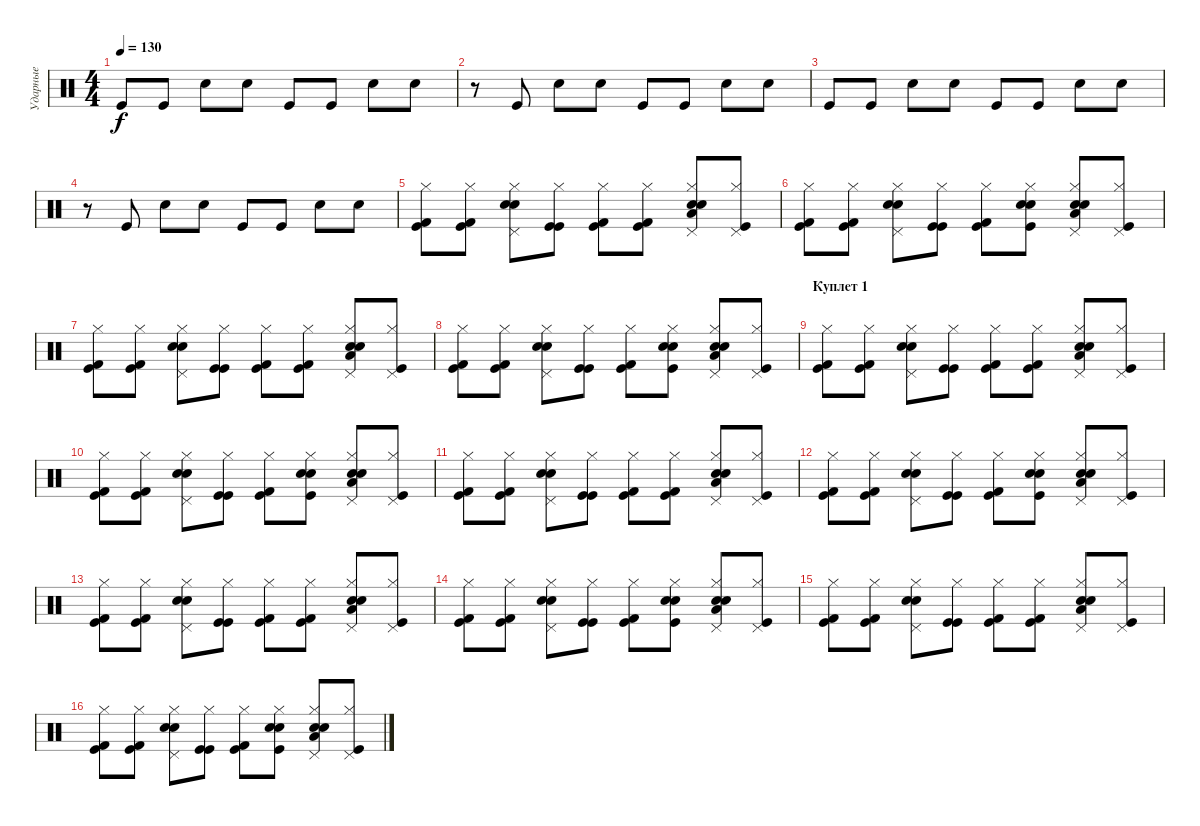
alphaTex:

\track ("Ударные" "Ударные") {instrument percussion}
\staff {score}
\articulation defaults
\ts (4 4)
\tempo 130
\clef neutral
\ks c "Kick (hit)".8{dy f} "Kick (hit)".8 "Snare (hit) 2".8 "Snare (hit) 2".8 "Kick (hit)".8 "Kick (hit)".8 "Snare (hit) 2".8 "Snare (hit) 2".8
|
r.8 "Kick (hit)".8 "Snare (hit) 2".8 "Snare (hit) 2".8 "Kick (hit)".8 "Kick (hit)".8 "Snare (hit) 2".8 "Snare (hit) 2".8 |
"Kick (hit)".8 "Kick (hit)".8 "Snare (hit) 2".8 "Snare (hit) 2".8 "Kick (hit)".8 "Kick (hit)".8 "Snare (hit) 2".8 "Snare (hit) 2".8 |
r.8 "Kick (hit)".8 "Snare (hit) 2".8 "Snare (hit) 2".8 "Kick (hit)".8 "Kick (hit)".8 "Snare (hit) 2".8 "Snare (hit) 2".8 |
("Kick (hit)" "Kick (hit) 2" "Hi-Hat (closed)").8 ("Kick (hit)" "Kick (hit) 2" "Hi-Hat (closed)").8 ("Electric Snare (hit)" "Pedal Hi-Hat (hit)" "Hi-Hat (closed)" "Snare (hit) 2").8 ("Kick (hit)" "Kick (hit)" "Hi-Hat (closed)").8 ("Kick (hit)" "Kick (hit) 2" "Hi-Hat (closed)").8 ("Kick (hit)" "Kick (hit) 2" "Hi-Hat (closed)").8 ("Low Tom (hit)" "Electric Snare (hit)" "Pedal Hi-Hat (hit)" "Hi-Hat (closed)" "Snare (hit) 2").8 ("Pedal Hi-Hat (hit)" "Kick (hit)" "Hi-Hat (closed)").8 |
("Kick (hit)" "Kick (hit) 2" "Hi-Hat (closed)").8 ("Kick (hit)" "Kick (hit) 2" "Hi-Hat (closed)").8 ("Snare (hit) 2" "Electric Snare (hit)" "Pedal Hi-Hat (hit)" "Hi-Hat (closed)").8 ("Kick (hit)" "Kick (hit)" "Hi-Hat (closed)").8 ("Kick (hit)" "Kick (hit) 2" "Hi-Hat (closed)").8 ("Kick (hit)" "Electric Snare (hit)" "Hi-Hat (closed)" "Snare (hit) 2").8 ("Low Tom (hit)" "Electric Snare (hit)" "Pedal Hi-Hat (hit)" "Hi-Hat (closed)" "Snare (hit) 2").8 ("Pedal Hi-Hat (hit)" "Kick (hit)" "Hi-Hat (closed)").8 |
("Kick (hit)" "Kick (hit) 2" "Hi-Hat (closed)").8 ("Kick (hit)" "Kick (hit) 2" "Hi-Hat (closed)").8 ("Electric Snare (hit)" "Pedal Hi-Hat (hit)" "Hi-Hat (closed)" "Snare (hit) 2").8 ("Kick (hit)" "Kick (hit)" "Hi-Hat (closed)").8 ("Kick (hit)" "Kick (hit) 2" "Hi-Hat (closed)").8 ("Kick (hit)" "Kick (hit) 2" "Hi-Hat (closed)").8 ("Low Tom (hit)" "Electric Snare (hit)" "Pedal Hi-Hat (hit)" "Hi-Hat (closed)" "Snare (hit) 2").8 ("Pedal Hi-Hat (hit)" "Kick (hit)" "Hi-Hat (closed)").8 |
("Kick (hit)" "Kick (hit) 2" "Hi-Hat (closed)").8 ("Kick (hit)" "Kick (hit) 2" "Hi-Hat (closed)").8 ("Snare (hit) 2" "Electric Snare (hit)" "Pedal Hi-Hat (hit)" "Hi-Hat (closed)").8 ("Kick (hit)" "Kick (hit)" "Hi-Hat (closed)").8 ("Kick (hit)" "Kick (hit) 2" "Hi-Hat (closed)").8 ("Kick (hit)" "Electric Snare (hit)" "Hi-Hat (closed)" "Snare (hit) 2").8 ("Low Tom (hit)" "Electric Snare (hit)" "Pedal Hi-Hat (hit)" "Hi-Hat (closed)" "Snare (hit) 2").8 ("Pedal Hi-Hat (hit)" "Kick (hit)" "Hi-Hat (closed)").8 |
\section ("" "Куплет 1")
("Kick (hit)" "Kick (hit) 2" "Hi-Hat (closed)").8 ("Kick (hit)" "Kick (hit) 2" "Hi-Hat (closed)").8 ("Electric Snare (hit)" "Pedal Hi-Hat (hit)" "Hi-Hat (closed)" "Snare (hit) 2").8 ("Kick (hit)" "Kick (hit)" "Hi-Hat (closed)").8 ("Kick (hit)" "Kick (hit) 2" "Hi-Hat (closed)").8 ("Kick (hit)" "Kick (hit) 2" "Hi-Hat (closed)").8 ("Low Tom (hit)" "Electric Snare (hit)" "Pedal Hi-Hat (hit)" "Hi-Hat (closed)" "Snare (hit) 2").8 ("Pedal Hi-Hat (hit)" "Kick (hit)" "Hi-Hat (closed)").8 |
("Kick (hit)" "Kick (hit) 2" "Hi-Hat (closed)").8 ("Kick (hit)" "Kick (hit) 2" "Hi-Hat (closed)").8 ("Snare (hit) 2" "Electric Snare (hit)" "Pedal Hi-Hat (hit)" "Hi-Hat (closed)").8 ("Kick (hit)" "Kick (hit)" "Hi-Hat (closed)").8 ("Kick (hit)" "Kick (hit) 2" "Hi-Hat (closed)").8 ("Kick (hit)" "Electric Snare (hit)" "Hi-Hat (closed)" "Snare (hit) 2").8 ("Low Tom (hit)" "Electric Snare (hit)" "Pedal Hi-Hat (hit)" "Hi-Hat (closed)" "Snare (hit) 2").8 ("Pedal Hi-Hat (hit)" "Kick (hit)" "Hi-Hat (closed)").8 |
("Kick (hit)" "Kick (hit) 2" "Hi-Hat (closed)").8 ("Kick (hit)" "Kick (hit) 2" "Hi-Hat (closed)").8 ("Electric Snare (hit)" "Pedal Hi-Hat (hit)" "Hi-Hat (closed)" "Snare (hit) 2").8 ("Kick (hit)" "Kick (hit)" "Hi-Hat (closed)").8 ("Kick (hit)" "Kick (hit) 2" "Hi-Hat (closed)").8 ("Kick (hit)" "Kick (hit) 2" "Hi-Hat (closed)").8 ("Low Tom (hit)" "Electric Snare (hit)" "Pedal Hi-Hat (hit)" "Hi-Hat (closed)" "Snare (hit) 2").8 ("Pedal Hi-Hat (hit)" "Kick (hit)" "Hi-Hat (closed)").8 |
("Kick (hit)" "Kick (hit) 2" "Hi-Hat (closed)").8 ("Kick (hit)" "Kick (hit) 2" "Hi-Hat (closed)").8 ("Snare (hit) 2" "Electric Snare (hit)" "Pedal Hi-Hat (hit)" "Hi-Hat (closed)").8 ("Kick (hit)" "Kick (hit)" "Hi-Hat (closed)").8 ("Kick (hit)" "Kick (hit) 2" "Hi-Hat (closed)").8 ("Kick (hit)" "Electric Snare (hit)" "Hi-Hat (closed)" "Snare (hit) 2").8 ("Low Tom (hit)" "Electric Snare (hit)" "Pedal Hi-Hat (hit)" "Hi-Hat (closed)" "Snare (hit) 2").8 ("Pedal Hi-Hat (hit)" "Kick (hit)" "Hi-Hat (closed)").8 |
("Kick (hit)" "Kick (hit) 2" "Hi-Hat (closed)").8 ("Kick (hit)" "Kick (hit) 2" "Hi-Hat (closed)").8 ("Electric Snare (hit)" "Pedal Hi-Hat (hit)" "Hi-Hat (closed)" "Snare (hit) 2").8 ("Kick (hit)" "Kick (hit)" "Hi-Hat (closed)").8 ("Kick (hit)" "Kick (hit) 2" "Hi-Hat (closed)").8 ("Kick (hit)" "Kick (hit) 2" "Hi-Hat (closed)").8 ("Low Tom (hit)" "Electric Snare (hit)" "Pedal Hi-Hat (hit)" "Hi-Hat (closed)" "Snare (hit) 2").8 ("Pedal Hi-Hat (hit)" "Kick (hit)" "Hi-Hat (closed)").8 |
("Kick (hit)" "Kick (hit) 2" "Hi-Hat (closed)").8 ("Kick (hit)" "Kick (hit) 2" "Hi-Hat (closed)").8 ("Snare (hit) 2" "Electric Snare (hit)" "Pedal Hi-Hat (hit)" "Hi-Hat (closed)").8 ("Kick (hit)" "Kick (hit)" "Hi-Hat (closed)").8 ("Kick (hit)" "Kick (hit) 2" "Hi-Hat (closed)").8 ("Kick (hit)" "Electric Snare (hit)" "Hi-Hat (closed)" "Snare (hit) 2").8 ("Low Tom (hit)" "Electric Snare (hit)" "Pedal Hi-Hat (hit)" "Hi-Hat (closed)" "Snare (hit) 2").8 ("Pedal Hi-Hat (hit)" "Kick (hit)" "Hi-Hat (closed)").8 |
("Kick (hit)" "Kick (hit) 2" "Hi-Hat (closed)").8 ("Kick (hit)" "Kick (hit) 2" "Hi-Hat (closed)").8 ("Electric Snare (hit)" "Pedal Hi-Hat (hit)" "Hi-Hat (closed)" "Snare (hit) 2").8 ("Kick (hit)" "Kick (hit)" "Hi-Hat (closed)").8 ("Kick (hit)" "Kick (hit) 2" "Hi-Hat (closed)").8 ("Kick (hit)" "Kick (hit) 2" "Hi-Hat (closed)").8 ("Low Tom (hit)" "Electric Snare (hit)" "Pedal Hi-Hat (hit)" "Hi-Hat (closed)" "Snare (hit) 2").8 ("Pedal Hi-Hat (hit)" "Kick (hit)" "Hi-Hat (closed)").8 |
("Kick (hit)" "Kick (hit) 2" "Hi-Hat (closed)").8 ("Kick (hit)" "Kick (hit) 2" "Hi-Hat (closed)").8 ("Snare (hit) 2" "Electric Snare (hit)" "Pedal Hi-Hat (hit)" "Hi-Hat (closed)").8 ("Kick (hit)" "Kick (hit)" "Hi-Hat (closed)").8 ("Kick (hit)" "Kick (hit) 2" "Hi-Hat (closed)").8 ("Kick (hit)" "Electric Snare (hit)" "Hi-Hat (closed)" "Snare (hit) 2").8 ("Low Tom (hit)" "Electric Snare (hit)" "Pedal Hi-Hat (hit)" "Hi-Hat (closed)" "Snare (hit) 2").8 ("Pedal Hi-Hat (hit)" "Kick (hit)" "Hi-Hat (closed)").8
